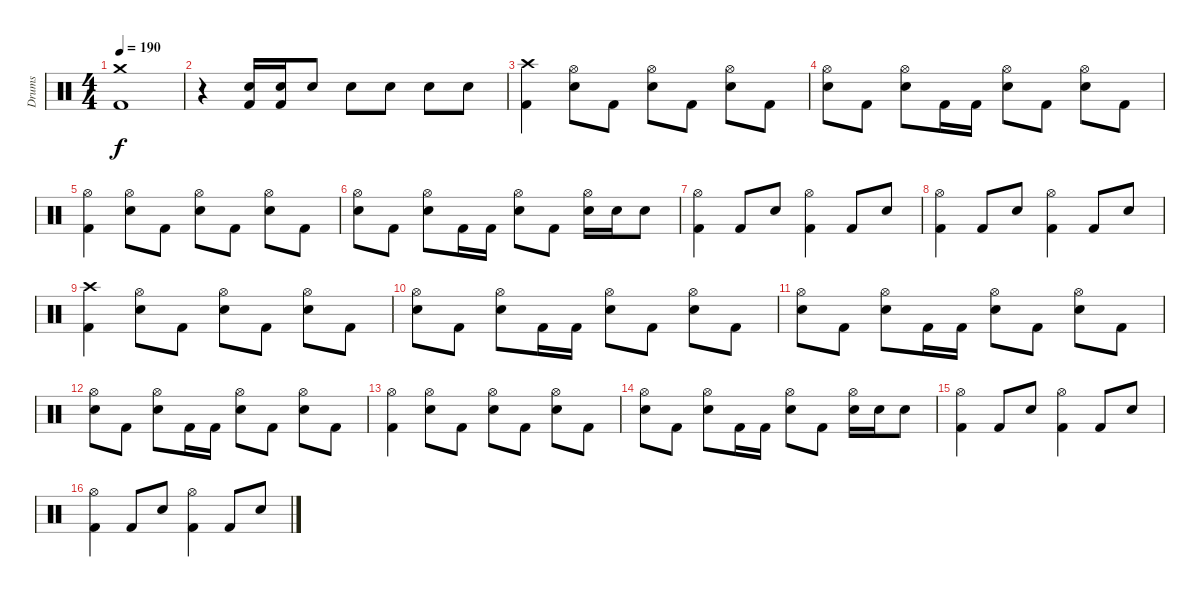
\track ("Drums" "Drums") {instrument percussion}
\staff {score}
\articulation defaults
\ts (4 4)
\tempo 190
\clef neutral
\ks c
("Crash medium (hit)" "Kick (hit) 2").1{dy f} |
r.4 ("Electric Snare (hit)" "Kick (hit) 2").16 ("Electric Snare (hit)" "Kick (hit) 2").16 "Electric Snare (hit)".8 "Electric Snare (hit)".8 "Electric Snare (hit)".8 "Electric Snare (hit)".8 "Electric Snare (hit)".8 |
("Crash high (hit)" "Kick (hit) 2").4 ("Hi-Hat (open)" "Electric Snare (hit)").8 "Kick (hit) 2".8 ("Hi-Hat (open)" "Electric Snare (hit)").8 "Kick (hit) 2".8 ("Hi-Hat (open)" "Electric Snare (hit)").8 "Kick (hit) 2".8 |
("Hi-Hat (open)" "Electric Snare (hit)").8 "Kick (hit) 2".8 ("Hi-Hat (open)" "Electric Snare (hit)").8 "Kick (hit) 2".16 "Kick (hit) 2".16 ("Hi-Hat (open)" "Electric Snare (hit)").8 "Kick (hit) 2".8 ("Hi-Hat (open)" "Electric Snare (hit)").8 "Kick (hit) 2".8 |
("Hi-Hat (open)" "Kick (hit) 2").4 ("Hi-Hat (open)" "Electric Snare (hit)").8 "Kick (hit) 2".8 ("Hi-Hat (open)" "Electric Snare (hit)").8 "Kick (hit) 2".8 ("Hi-Hat (open)" "Electric Snare (hit)").8 "Kick (hit) 2".8 |
("Hi-Hat (open)" "Electric Snare (hit)").8 "Kick (hit) 2".8 ("Hi-Hat (open)" "Electric Snare (hit)").8 "Kick (hit) 2".16 "Kick (hit) 2".16 ("Hi-Hat (open)" "Electric Snare (hit)").8 "Kick (hit) 2".8 ("Hi-Hat (open)" "Electric Snare (hit)").16 "Electric Snare (hit)".16 "Electric Snare (hit)".8 |
("Hi-Hat (open)" "Kick (hit) 2").4 "Kick (hit) 2".8 "Electric Snare (hit)".8 ("Hi-Hat (open)" "Kick (hit) 2").4 "Kick (hit) 2".8 "Electric Snare (hit)".8 |
("Hi-Hat (open)" "Kick (hit) 2").4 "Kick (hit) 2".8 "Electric Snare (hit)".8 ("Hi-Hat (open)" "Kick (hit) 2").4 "Kick (hit) 2".8 "Electric Snare (hit)".8 |
("Crash high (hit)" "Kick (hit) 2").4 ("Hi-Hat (open)" "Electric Snare (hit)").8 "Kick (hit) 2".8 ("Hi-Hat (open)" "Electric Snare (hit)").8 "Kick (hit) 2".8 ("Hi-Hat (open)" "Electric Snare (hit)").8 "Kick (hit) 2".8 |
("Hi-Hat (open)" "Electric Snare (hit)").8 "Kick (hit) 2".8 ("Hi-Hat (open)" "Electric Snare (hit)").8 "Kick (hit) 2".16 "Kick (hit) 2".16 ("Hi-Hat (open)" "Electric Snare (hit)").8 "Kick (hit) 2".8 ("Hi-Hat (open)" "Electric Snare (hit)").8 "Kick (hit) 2".8 |
("Hi-Hat (open)" "Electric Snare (hit)").8 "Kick (hit) 2".8 ("Hi-Hat (open)" "Electric Snare (hit)").8 "Kick (hit) 2".16 "Kick (hit) 2".16 ("Hi-Hat (open)" "Electric Snare (hit)").8 "Kick (hit) 2".8 ("Hi-Hat (open)" "Electric Snare (hit)").8 "Kick (hit) 2".8 |
("Hi-Hat (open)" "Electric Snare (hit)").8 "Kick (hit) 2".8 ("Hi-Hat (open)" "Electric Snare (hit)").8 "Kick (hit) 2".16 "Kick (hit) 2".16 ("Hi-Hat (open)" "Electric Snare (hit)").8 "Kick (hit) 2".8 ("Hi-Hat (open)" "Electric Snare (hit)").8 "Kick (hit) 2".8 |
("Hi-Hat (open)" "Kick (hit) 2").4 ("Hi-Hat (open)" "Electric Snare (hit)").8 "Kick (hit) 2".8 ("Hi-Hat (open)" "Electric Snare (hit)").8 "Kick (hit) 2".8 ("Hi-Hat (open)" "Electric Snare (hit)").8 "Kick (hit) 2".8 |
("Hi-Hat (open)" "Electric Snare (hit)").8 "Kick (hit) 2".8 ("Hi-Hat (open)" "Electric Snare (hit)").8 "Kick (hit) 2".16 "Kick (hit) 2".16 ("Hi-Hat (open)" "Electric Snare (hit)").8 "Kick (hit) 2".8 ("Hi-Hat (open)" "Electric Snare (hit)").16 "Electric Snare (hit)".16 "Electric Snare (hit)".8 |
("Hi-Hat (open)" "Kick (hit) 2").4 "Kick (hit) 2".8 "Electric Snare (hit)".8 ("Hi-Hat (open)" "Kick (hit) 2").4 "Kick (hit) 2".8 "Electric Snare (hit)".8 |
("Hi-Hat (open)" "Kick (hit) 2").4 "Kick (hit) 2".8 "Electric Snare (hit)".8 ("Hi-Hat (open)" "Kick (hit) 2").4 "Kick (hit) 2".8 "Electric Snare (hit)".8
